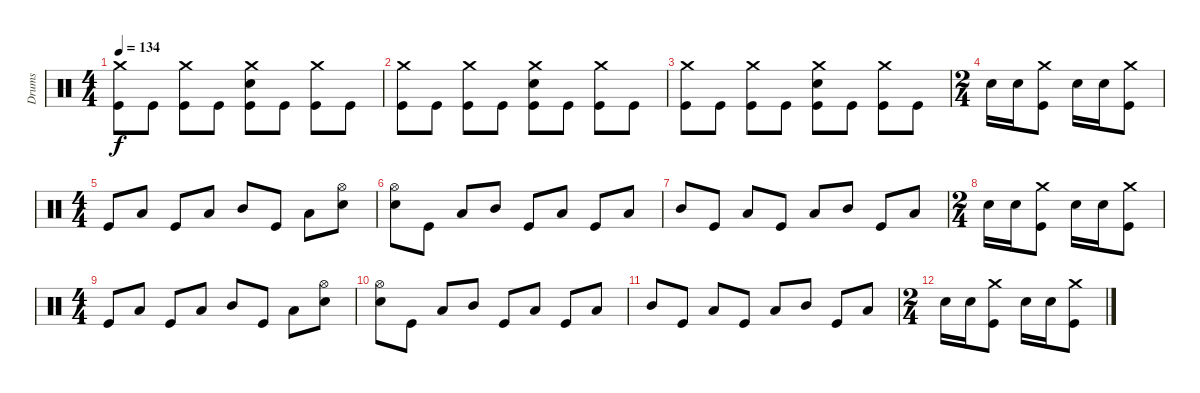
\track ("Drums" "Drums") {instrument percussion}
\staff {score}
\articulation defaults
\ts (4 4)
\tempo 134
\clef neutral
\ks c
("Crash medium (hit)" "Kick (hit)").8{dy f} "Kick (hit)".8 ("Crash medium (hit)" "Kick (hit)").8 "Kick (hit)".8 ("Crash medium (hit)" "Electric Snare (hit)" "Kick (hit)").8 "Kick (hit)".8 ("Crash medium (hit)" "Kick (hit)").8 "Kick (hit)".8 |
("Crash medium (hit)" "Kick (hit)").8 "Kick (hit)".8 ("Crash medium (hit)" "Kick (hit)").8 "Kick (hit)".8 ("Crash medium (hit)" "Electric Snare (hit)" "Kick (hit)").8 "Kick (hit)".8 ("Crash medium (hit)" "Kick (hit)").8 "Kick (hit)".8 |
("Crash medium (hit)" "Kick (hit)").8 "Kick (hit)".8 ("Crash medium (hit)" "Kick (hit)").8 "Kick (hit)".8 ("Crash medium (hit)" "Electric Snare (hit)" "Kick (hit)").8 "Kick (hit)".8 ("Crash medium (hit)" "Kick (hit)").8 "Kick (hit)".8 |
\ts (2 4)
"Electric Snare (hit)".16 "Electric Snare (hit)".16 ("Crash medium (hit)" "Kick (hit)").8 "Electric Snare (hit)".16 "Electric Snare (hit)".16 ("Crash medium (hit)" "Kick (hit)").8 |
\ts (4 4)
"Kick (hit)".8 "Low Tom (hit)".8 "Kick (hit)".8 "Low Tom (hit)".8 "Mid Tom (hit)".8 "Kick (hit)".8 "Low Floor Tom (hit)".8 ("Hi-Hat (open)" "Electric Snare (hit)").8 |
("Hi-Hat (open)" "Electric Snare (hit)").8 "Kick (hit)".8 "Low Tom (hit)".8 "Mid Tom (hit)".8 "Kick (hit)".8 "Low Tom (hit)".8 "Kick (hit)".8 "Low Tom (hit)".8 |
"Mid Tom (hit)".8 "Kick (hit)".8 "Low Tom (hit)".8 "Kick (hit)".8 "Low Tom (hit)".8 "Mid Tom (hit)".8 "Kick (hit)".8 "Low Tom (hit)".8 |
\ts (2 4)
"Electric Snare (hit)".16 "Electric Snare (hit)".16 ("Crash medium (hit)" "Kick (hit)").8 "Electric Snare (hit)".16 "Electric Snare (hit)".16 ("Crash medium (hit)" "Kick (hit)").8 |
\ts (4 4)
"Kick (hit)".8 "Low Tom (hit)".8 "Kick (hit)".8 "Low Tom (hit)".8 "Mid Tom (hit)".8 "Kick (hit)".8 "Low Floor Tom (hit)".8 ("Hi-Hat (open)" "Electric Snare (hit)").8 |
("Hi-Hat (open)" "Electric Snare (hit)").8 "Kick (hit)".8 "Low Tom (hit)".8 "Mid Tom (hit)".8 "Kick (hit)".8 "Low Tom (hit)".8 "Kick (hit)".8 "Low Tom (hit)".8 |
"Mid Tom (hit)".8 "Kick (hit)".8 "Low Tom (hit)".8 "Kick (hit)".8 "Low Tom (hit)".8 "Mid Tom (hit)".8 "Kick (hit)".8 "Low Tom (hit)".8 |
\ts (2 4)
"Electric Snare (hit)".16 "Electric Snare (hit)".16 ("Crash medium (hit)" "Kick (hit)").8 "Electric Snare (hit)".16 "Electric Snare (hit)".16 ("Crash medium (hit)" "Kick (hit)").8
